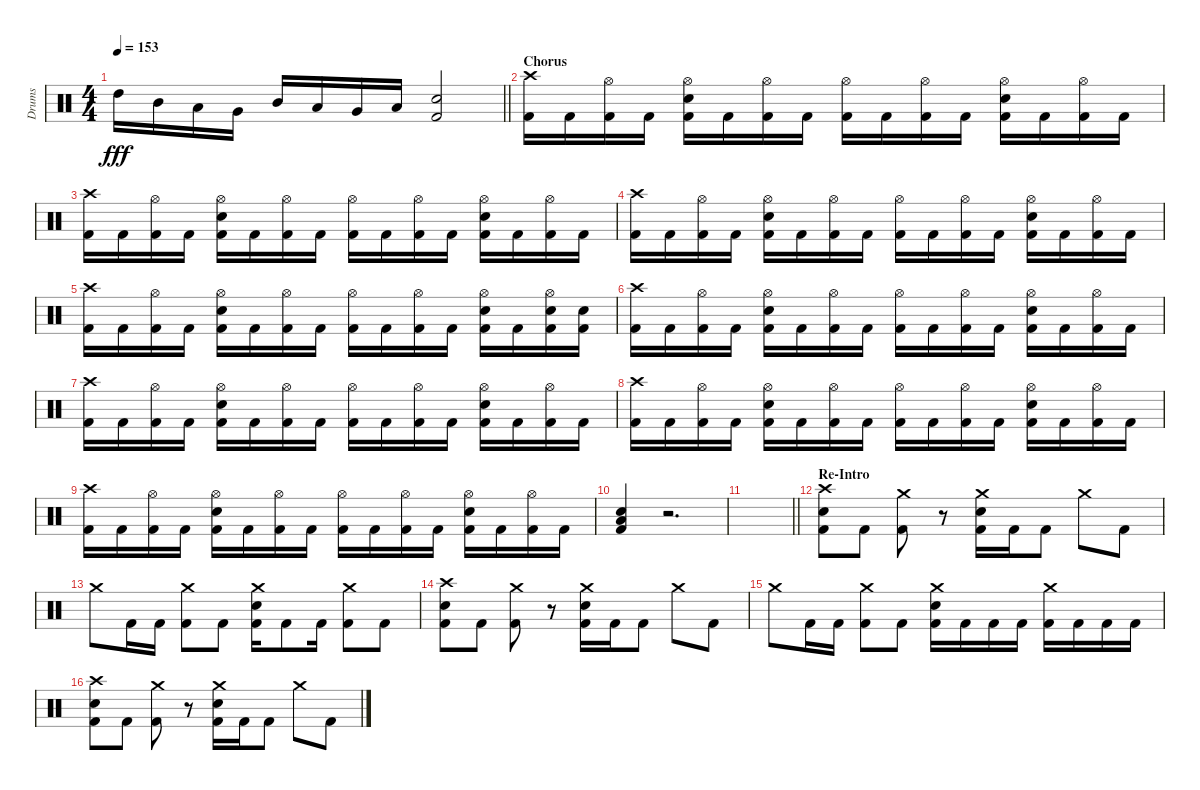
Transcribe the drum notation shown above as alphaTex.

\track ("Drums" "Drums") {instrument percussion}
\staff {score}
\articulation defaults
\ts (4 4)
\tempo 153
\clef neutral
\barLineRight lightlight
\ks c "High Tom (hit)".16{dy fff} "Mid Tom (hit)".16 "Low Tom (hit)".16 "Very Low Tom (hit)".16 "Mid Tom (hit)".16 "Low Tom (hit)".16 "Very Low Tom (hit)".16 "Low Floor Tom (hit)".16
("Snare (hit) 2" "Kick (hit) 2").2 |
\section ("" "Chorus")
("Crash high (hit)" "Kick (hit) 2").16 "Kick (hit) 2".16 ("Hi-Hat (open)" "Kick (hit) 2").16 "Kick (hit) 2".16 ("Hi-Hat (open)" "Snare (hit) 2" "Kick (hit) 2").16 "Kick (hit) 2".16 ("Hi-Hat (open)" "Kick (hit) 2").16 "Kick (hit) 2".16 ("Hi-Hat (open)" "Kick (hit) 2").16 "Kick (hit) 2".16 ("Hi-Hat (open)" "Kick (hit) 2").16 "Kick (hit) 2".16 ("Hi-Hat (open)" "Snare (hit) 2" "Kick (hit) 2").16 "Kick (hit) 2".16 ("Hi-Hat (open)" "Kick (hit) 2").16 "Kick (hit) 2".16 |
("Crash high (hit)" "Kick (hit) 2").16 "Kick (hit) 2".16 ("Hi-Hat (open)" "Kick (hit) 2").16 "Kick (hit) 2".16 ("Hi-Hat (open)" "Snare (hit) 2" "Kick (hit) 2").16 "Kick (hit) 2".16 ("Hi-Hat (open)" "Kick (hit) 2").16 "Kick (hit) 2".16 ("Hi-Hat (open)" "Kick (hit) 2").16 "Kick (hit) 2".16 ("Hi-Hat (open)" "Kick (hit) 2").16 "Kick (hit) 2".16 ("Hi-Hat (open)" "Snare (hit) 2" "Kick (hit) 2").16 "Kick (hit) 2".16 ("Hi-Hat (open)" "Kick (hit) 2").16 "Kick (hit) 2".16 |
("Crash high (hit)" "Kick (hit) 2").16 "Kick (hit) 2".16 ("Hi-Hat (open)" "Kick (hit) 2").16 "Kick (hit) 2".16 ("Hi-Hat (open)" "Snare (hit) 2" "Kick (hit) 2").16 "Kick (hit) 2".16 ("Hi-Hat (open)" "Kick (hit) 2").16 "Kick (hit) 2".16 ("Hi-Hat (open)" "Kick (hit) 2").16 "Kick (hit) 2".16 ("Hi-Hat (open)" "Kick (hit) 2").16 "Kick (hit) 2".16 ("Hi-Hat (open)" "Snare (hit) 2" "Kick (hit) 2").16 "Kick (hit) 2".16 ("Hi-Hat (open)" "Kick (hit) 2").16 "Kick (hit) 2".16 |
("Crash high (hit)" "Kick (hit) 2").16 "Kick (hit) 2".16 ("Hi-Hat (open)" "Kick (hit) 2").16 "Kick (hit) 2".16 ("Hi-Hat (open)" "Snare (hit) 2" "Kick (hit) 2").16 "Kick (hit) 2".16 ("Hi-Hat (open)" "Kick (hit) 2").16 "Kick (hit) 2".16 ("Hi-Hat (open)" "Kick (hit) 2").16 "Kick (hit) 2".16 ("Hi-Hat (open)" "Kick (hit) 2").16 "Kick (hit) 2".16 ("Hi-Hat (open)" "Snare (hit) 2" "Kick (hit) 2").16 "Kick (hit) 2".16 ("Hi-Hat (open)" "Snare (hit) 2" "Kick (hit) 2").16 ("Snare (hit) 2" "Kick (hit) 2").16 |
("Crash high (hit)" "Kick (hit) 2").16 "Kick (hit) 2".16 ("Hi-Hat (open)" "Kick (hit) 2").16 "Kick (hit) 2".16 ("Hi-Hat (open)" "Snare (hit) 2" "Kick (hit) 2").16 "Kick (hit) 2".16 ("Hi-Hat (open)" "Kick (hit) 2").16 "Kick (hit) 2".16 ("Hi-Hat (open)" "Kick (hit) 2").16 "Kick (hit) 2".16 ("Hi-Hat (open)" "Kick (hit) 2").16 "Kick (hit) 2".16 ("Hi-Hat (open)" "Snare (hit) 2" "Kick (hit) 2").16 "Kick (hit) 2".16 ("Hi-Hat (open)" "Kick (hit) 2").16 "Kick (hit) 2".16 |
("Crash high (hit)" "Kick (hit) 2").16 "Kick (hit) 2".16 ("Hi-Hat (open)" "Kick (hit) 2").16 "Kick (hit) 2".16 ("Hi-Hat (open)" "Snare (hit) 2" "Kick (hit) 2").16 "Kick (hit) 2".16 ("Hi-Hat (open)" "Kick (hit) 2").16 "Kick (hit) 2".16 ("Hi-Hat (open)" "Kick (hit) 2").16 "Kick (hit) 2".16 ("Hi-Hat (open)" "Kick (hit) 2").16 "Kick (hit) 2".16 ("Hi-Hat (open)" "Snare (hit) 2" "Kick (hit) 2").16 "Kick (hit) 2".16 ("Hi-Hat (open)" "Kick (hit) 2").16 "Kick (hit) 2".16 |
("Crash high (hit)" "Kick (hit) 2").16 "Kick (hit) 2".16 ("Hi-Hat (open)" "Kick (hit) 2").16 "Kick (hit) 2".16 ("Hi-Hat (open)" "Snare (hit) 2" "Kick (hit) 2").16 "Kick (hit) 2".16 ("Hi-Hat (open)" "Kick (hit) 2").16 "Kick (hit) 2".16 ("Hi-Hat (open)" "Kick (hit) 2").16 "Kick (hit) 2".16 ("Hi-Hat (open)" "Kick (hit) 2").16 "Kick (hit) 2".16 ("Hi-Hat (open)" "Snare (hit) 2" "Kick (hit) 2").16 "Kick (hit) 2".16 ("Hi-Hat (open)" "Kick (hit) 2").16 "Kick (hit) 2".16 |
("Crash high (hit)" "Kick (hit) 2").16 "Kick (hit) 2".16 ("Hi-Hat (open)" "Kick (hit) 2").16 "Kick (hit) 2".16 ("Hi-Hat (open)" "Snare (hit) 2" "Kick (hit) 2").16 "Kick (hit) 2".16 ("Hi-Hat (open)" "Kick (hit) 2").16 "Kick (hit) 2".16 ("Hi-Hat (open)" "Kick (hit) 2").16 "Kick (hit) 2".16 ("Hi-Hat (open)" "Kick (hit) 2").16 "Kick (hit) 2".16 ("Hi-Hat (open)" "Snare (hit) 2" "Kick (hit) 2").16 "Kick (hit) 2".16 ("Hi-Hat (open)" "Kick (hit) 2").16 "Kick (hit) 2".16 |
("Low Floor Tom (hit)" "Snare (hit) 2" "Kick (hit) 2").4 r.2{d} |
\barLineRight lightlight
|
\section ("" "Re-Intro")
("Crash high (hit)" "Snare (hit) 2" "Kick (hit) 2").8 "Kick (hit) 2".8 ("Crash medium (hit)" "Kick (hit) 2").8 r.8 ("Snare (hit) 2" "Crash medium (hit)" "Kick (hit) 2").16 "Kick (hit) 2".16 "Kick (hit) 2".8 "Crash medium (hit)".8 "Kick (hit) 2".8 |
"Crash medium (hit)".8 "Kick (hit) 2".16 "Kick (hit) 2".16 ("Crash medium (hit)" "Kick (hit) 2").8 "Kick (hit) 2".8 ("Snare (hit) 2" "Crash medium (hit)" "Kick (hit) 2").16 "Kick (hit) 2".8 "Kick (hit) 2".16 ("Crash medium (hit)" "Kick (hit) 2").8 "Kick (hit) 2".8 |
("Crash high (hit)" "Snare (hit) 2" "Kick (hit) 2").8 "Kick (hit) 2".8 ("Crash medium (hit)" "Kick (hit) 2").8 r.8 ("Snare (hit) 2" "Crash medium (hit)" "Kick (hit) 2").16 "Kick (hit) 2".16 "Kick (hit) 2".8 "Crash medium (hit)".8 "Kick (hit) 2".8 |
"Crash medium (hit)".8 "Kick (hit) 2".16 "Kick (hit) 2".16 ("Crash medium (hit)" "Kick (hit) 2").8 "Kick (hit) 2".8 ("Snare (hit) 2" "Crash medium (hit)" "Kick (hit) 2").16 "Kick (hit) 2".16 "Kick (hit) 2".16 "Kick (hit) 2".16 ("Crash medium (hit)" "Kick (hit) 2").16 "Kick (hit) 2".16 "Kick (hit) 2".16 "Kick (hit) 2".16 |
("Crash high (hit)" "Snare (hit) 2" "Kick (hit) 2").8 "Kick (hit) 2".8 ("Crash medium (hit)" "Kick (hit) 2").8 r.8 ("Snare (hit) 2" "Crash medium (hit)" "Kick (hit) 2").16 "Kick (hit) 2".16 "Kick (hit) 2".8 "Crash medium (hit)".8 "Kick (hit) 2".8
